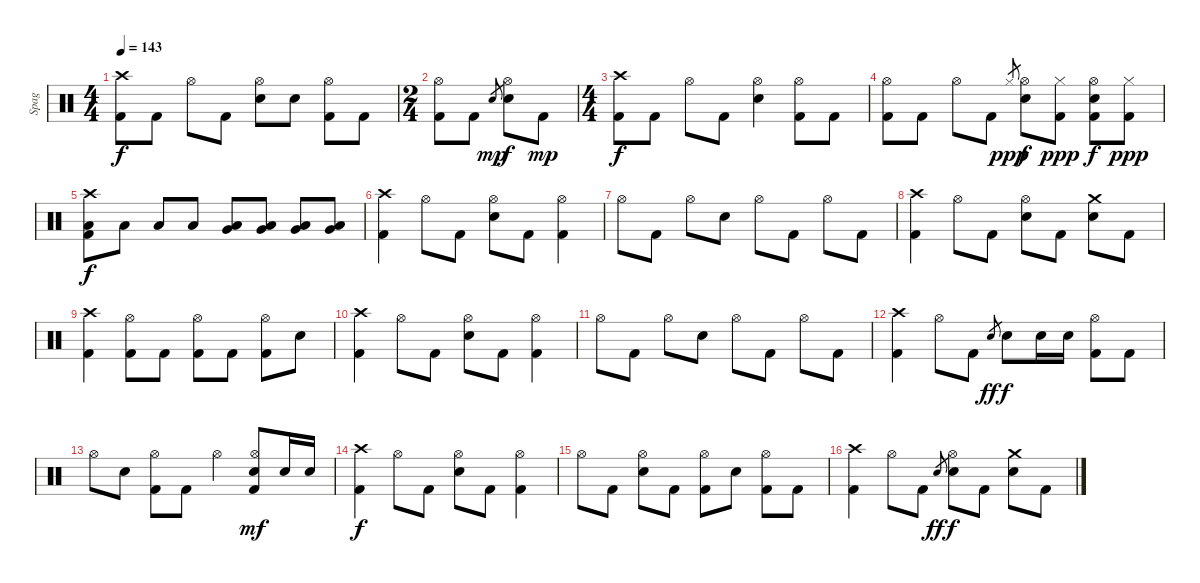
\track ("Spag" "Spag") {instrument percussion}
\staff {score}
\articulation defaults
\ts (4 4)
\tempo 143
\clef neutral
\ks c
("Crash high (hit)" "Kick (hit) 2").8{dy f} "Kick (hit) 2".8 "Hi-Hat (open)".8 "Kick (hit) 2".8 ("Hi-Hat (open)" "Electric Snare (hit)").8 "Electric Snare (hit)".8 ("Hi-Hat (open)" "Kick (hit) 2").8 "Kick (hit) 2".8 |
\ts (2 4)
("Hi-Hat (open)" "Kick (hit) 2").8 "Kick (hit) 2".8 "Electric Snare (hit)".8{gr dy mp} ("Hi-Hat (open)" "Electric Snare (hit)").8{dy f} "Kick (hit) 2".8{dy mp} |
\ts (4 4)
("Crash high (hit)" "Kick (hit) 2").8{dy f} "Kick (hit) 2".8 "Hi-Hat (open)".8 "Kick (hit) 2".8 ("Hi-Hat (open)" "Electric Snare (hit)").4 ("Hi-Hat (open)" "Kick (hit) 2").8 "Kick (hit) 2".8 |
("Hi-Hat (open)" "Kick (hit) 2").8 "Kick (hit) 2".8 "Hi-Hat (open)".8 "Kick (hit) 2".8 "Hi-Hat (closed)".8{gr dy ppp} ("Hi-Hat (open)" "Electric Snare (hit)").8{dy f} ("Hi-Hat (closed)" "Kick (hit) 2").8{dy ppp} ("Hi-Hat (open)" "Electric Snare (hit)" "Kick (hit) 2").8{dy f} ("Hi-Hat (closed)" "Kick (hit) 2").8{dy ppp} |
("Crash high (hit)" "Low Floor Tom (hit)" "Kick (hit) 2").8{dy f} "Low Floor Tom (hit)".8 "Low Floor Tom (hit)".8 "Low Floor Tom (hit)".8 ("Very Low Tom (hit)" "Low Floor Tom (hit)").8 ("Very Low Tom (hit)" "Low Floor Tom (hit)").8 ("Very Low Tom (hit)" "Low Floor Tom (hit)").8 ("Very Low Tom (hit)" "Low Floor Tom (hit)").8 |
("Crash high (hit)" "Kick (hit) 2").4 "Hi-Hat (open)".8 "Kick (hit) 2".8 ("Hi-Hat (open)" "Electric Snare (hit)").8 "Kick (hit) 2".8 ("Hi-Hat (open)" "Kick (hit) 2").4 |
"Hi-Hat (open)".8 "Kick (hit) 2".8 "Hi-Hat (open)".8 "Electric Snare (hit)".8 "Hi-Hat (open)".8 "Kick (hit) 2".8 "Hi-Hat (open)".8 "Kick (hit) 2".8 |
("Crash high (hit)" "Kick (hit) 2").4 "Hi-Hat (open)".8 "Kick (hit) 2".8 ("Hi-Hat (open)" "Electric Snare (hit)").8 "Kick (hit) 2".8 ("Crash medium (hit)" "Electric Snare (hit)").8 "Kick (hit) 2".8 |
("Crash high (hit)" "Kick (hit) 2").4 ("Hi-Hat (open)" "Kick (hit) 2").8 "Kick (hit) 2".8 ("Hi-Hat (open)" "Kick (hit) 2").8 "Kick (hit) 2".8 ("Hi-Hat (open)" "Kick (hit) 2").8 "Electric Snare (hit)".8 |
("Crash high (hit)" "Kick (hit) 2").4 "Hi-Hat (open)".8 "Kick (hit) 2".8 ("Hi-Hat (open)" "Electric Snare (hit)").8 "Kick (hit) 2".8 ("Hi-Hat (open)" "Kick (hit) 2").4 |
"Hi-Hat (open)".8 "Kick (hit) 2".8 "Hi-Hat (open)".8 "Electric Snare (hit)".8 "Hi-Hat (open)".8 "Kick (hit) 2".8 "Hi-Hat (open)".8 "Kick (hit) 2".8 |
("Crash high (hit)" "Kick (hit) 2").4 "Hi-Hat (open)".8 "Kick (hit) 2".8 "Electric Snare (hit)".8{gr dy ff} "Electric Snare (hit)".8{dy f} "Electric Snare (hit)".16 "Electric Snare (hit)".16 ("Hi-Hat (open)" "Kick (hit) 2").8 "Kick (hit) 2".8 |
"Hi-Hat (open)".8 "Electric Snare (hit)".8 ("Hi-Hat (open)" "Kick (hit) 2").8 "Kick (hit) 2".8 "Hi-Hat (open)".4 ("Hi-Hat (open)" "Electric Snare (hit)" "Kick (hit) 2").8{dy mf} "Electric Snare (hit)".16 "Electric Snare (hit)".16 |
("Crash high (hit)" "Kick (hit) 2").4{dy f} "Hi-Hat (open)".8 "Kick (hit) 2".8 ("Hi-Hat (open)" "Electric Snare (hit)").8 "Kick (hit) 2".8 ("Hi-Hat (open)" "Kick (hit) 2").4 |
"Hi-Hat (open)".8 "Kick (hit) 2".8 ("Hi-Hat (open)" "Electric Snare (hit)").8 "Kick (hit) 2".8 ("Hi-Hat (open)" "Kick (hit) 2").8 "Electric Snare (hit)".8 ("Hi-Hat (open)" "Kick (hit) 2").8 "Kick (hit) 2".8 |
("Crash high (hit)" "Kick (hit) 2").4 "Hi-Hat (open)".8 "Kick (hit) 2".8 "Electric Snare (hit)".8{gr dy ff} ("Hi-Hat (open)" "Electric Snare (hit)").8{dy f} "Kick (hit) 2".8 ("Crash medium (hit)" "Electric Snare (hit)").8 "Kick (hit) 2".8
